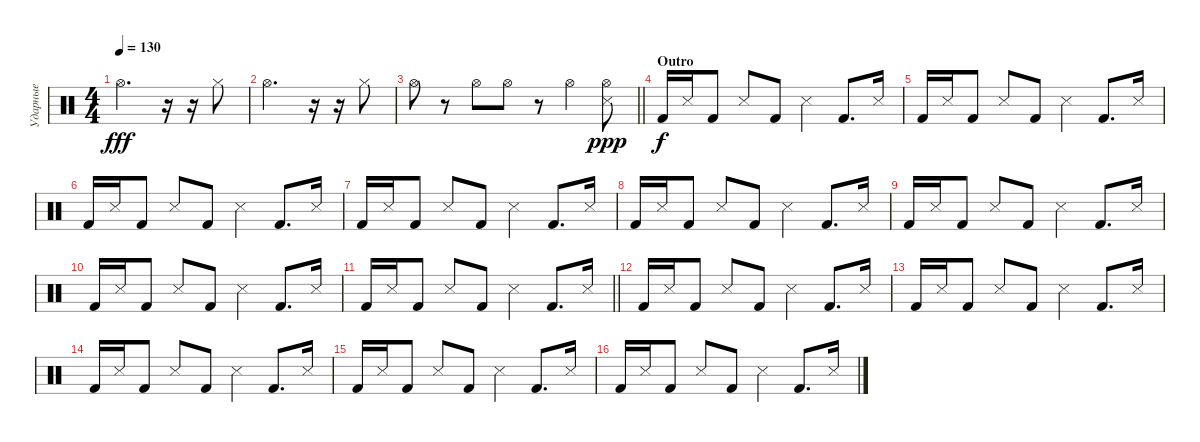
\track ("Ударные" "Ударные") {instrument percussion}
\staff {score}
\articulation defaults
\ts (4 4)
\tempo 130
\clef neutral
\ks c "Hi-Hat (open)".2{d dy fff}
r.16 r.16 "Hi-Hat (closed)".8 |
"Hi-Hat (open)".2{d} r.16 r.16 "Hi-Hat (closed)".8 |
\barLineRight lightlight "Hi-Hat (open)".8
r.8 "Hi-Hat (open)".8 "Hi-Hat (open)".8 r.8 "Hi-Hat (open)".4 ("Hi-Hat (open)" "Snare (side stick) 3").8{dy ppp} |
\section ("" "Outro")
"Kick (hit) 2".16{dy f} "Snare (side stick) 3".16 "Kick (hit) 2".8 "Snare (side stick) 3".8 "Kick (hit) 2".8 "Snare (side stick) 3".4 "Kick (hit) 2".8{d} "Snare (side stick) 3".16 |
"Kick (hit) 2".16 "Snare (side stick) 3".16 "Kick (hit) 2".8 "Snare (side stick) 3".8 "Kick (hit) 2".8 "Snare (side stick) 3".4 "Kick (hit) 2".8{d} "Snare (side stick) 3".16 |
"Kick (hit) 2".16 "Snare (side stick) 3".16 "Kick (hit) 2".8 "Snare (side stick) 3".8 "Kick (hit) 2".8 "Snare (side stick) 3".4 "Kick (hit) 2".8{d} "Snare (side stick) 3".16 |
"Kick (hit) 2".16 "Snare (side stick) 3".16 "Kick (hit) 2".8 "Snare (side stick) 3".8 "Kick (hit) 2".8 "Snare (side stick) 3".4 "Kick (hit) 2".8{d} "Snare (side stick) 3".16 |
"Kick (hit) 2".16 "Snare (side stick) 3".16 "Kick (hit) 2".8 "Snare (side stick) 3".8 "Kick (hit) 2".8 "Snare (side stick) 3".4 "Kick (hit) 2".8{d} "Snare (side stick) 3".16 |
"Kick (hit) 2".16 "Snare (side stick) 3".16 "Kick (hit) 2".8 "Snare (side stick) 3".8 "Kick (hit) 2".8 "Snare (side stick) 3".4 "Kick (hit) 2".8{d} "Snare (side stick) 3".16 |
"Kick (hit) 2".16 "Snare (side stick) 3".16 "Kick (hit) 2".8 "Snare (side stick) 3".8 "Kick (hit) 2".8 "Snare (side stick) 3".4 "Kick (hit) 2".8{d} "Snare (side stick) 3".16 |
\barLineRight lightlight "Kick (hit) 2".16 "Snare (side stick) 3".16 "Kick (hit) 2".8 "Snare (side stick) 3".8 "Kick (hit) 2".8 "Snare (side stick) 3".4 "Kick (hit) 2".8{d} "Snare (side stick) 3".16
|
"Kick (hit) 2".16 "Snare (side stick) 3".16 "Kick (hit) 2".8 "Snare (side stick) 3".8 "Kick (hit) 2".8 "Snare (side stick) 3".4 "Kick (hit) 2".8{d} "Snare (side stick) 3".16 |
"Kick (hit) 2".16 "Snare (side stick) 3".16 "Kick (hit) 2".8 "Snare (side stick) 3".8 "Kick (hit) 2".8 "Snare (side stick) 3".4 "Kick (hit) 2".8{d} "Snare (side stick) 3".16 |
"Kick (hit) 2".16 "Snare (side stick) 3".16 "Kick (hit) 2".8 "Snare (side stick) 3".8 "Kick (hit) 2".8 "Snare (side stick) 3".4 "Kick (hit) 2".8{d} "Snare (side stick) 3".16 |
"Kick (hit) 2".16 "Snare (side stick) 3".16 "Kick (hit) 2".8 "Snare (side stick) 3".8 "Kick (hit) 2".8 "Snare (side stick) 3".4 "Kick (hit) 2".8{d} "Snare (side stick) 3".16 |
"Kick (hit) 2".16 "Snare (side stick) 3".16 "Kick (hit) 2".8 "Snare (side stick) 3".8 "Kick (hit) 2".8 "Snare (side stick) 3".4 "Kick (hit) 2".8{d} "Snare (side stick) 3".16
